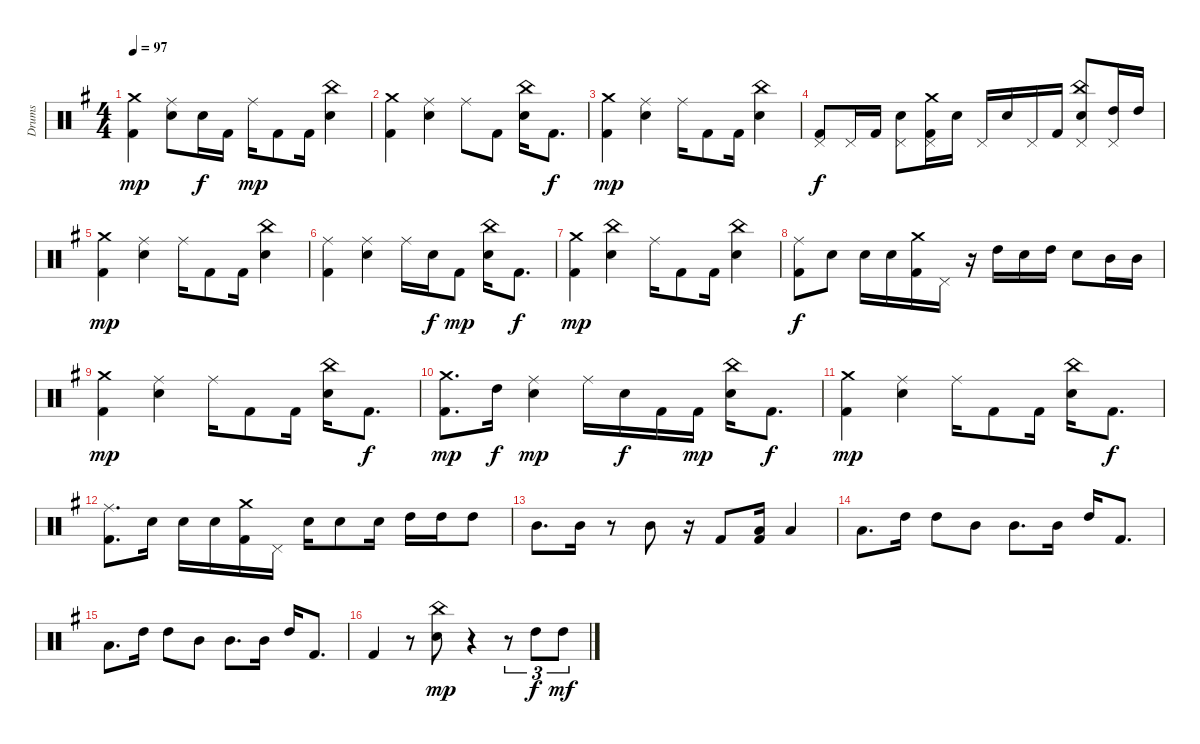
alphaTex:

\track ("Drums" "Drums") {instrument percussion}
\staff {score}
\articulation defaults
\ts (4 4)
\tempo 97
\clef neutral
\ks g
("Crash medium (hit)" "Kick (hit) 2").4{dy mp} ("Ride (middle)" "Electric Snare (hit)").8 "Electric Snare (hit)".16{dy f} "Kick (hit) 2".16 "Ride (middle)".16{dy mp} "Kick (hit) 2".8 "Kick (hit) 2".16 ("China (hit)" "Electric Snare (hit)").4 |
("Crash medium (hit)" "Kick (hit) 2").4 ("Ride (middle)" "Electric Snare (hit)").4 "Ride (middle)".8 "Kick (hit) 2".8 ("China (hit)" "Electric Snare (hit)").16 "Kick (hit) 2".8{d dy f} |
("Crash medium (hit)" "Kick (hit) 2").4{dy mp} ("Ride (middle)" "Electric Snare (hit)").4 "Ride (middle)".16 "Kick (hit) 2".8 "Kick (hit) 2".16 ("China (hit)" "Electric Snare (hit)").4 |
("Kick (hit) 2" "Pedal Hi-Hat (hit)").8{dy f} "Pedal Hi-Hat (hit)".16 "Kick (hit) 2".16 ("Electric Snare (hit)" "Pedal Hi-Hat (hit)").8 ("Kick (hit) 2" "Pedal Hi-Hat (hit)" "Crash medium (hit)").16 "Electric Snare (hit)".16 "Pedal Hi-Hat (hit)".16 "Electric Snare (hit)".16 "Pedal Hi-Hat (hit)".16 "Kick (hit) 2".16 ("Electric Snare (hit)" "Pedal Hi-Hat (hit)" "China (hit)").8 ("High Tom (hit)" "Pedal Hi-Hat (hit)").16 "High Tom (hit)".16 |
("Crash medium (hit)" "Kick (hit) 2").4{dy mp} ("Ride (middle)" "Electric Snare (hit)").4 "Ride (middle)".16 "Kick (hit) 2".8 "Kick (hit) 2".16 ("China (hit)" "Electric Snare (hit)").4 |
("Ride (middle)" "Kick (hit) 2").4 ("Ride (middle)" "Electric Snare (hit)").4 "Ride (middle)".16 "Electric Snare (hit)".16{dy f} "Kick (hit) 2".8{dy mp} ("China (hit)" "Electric Snare (hit)").16 "Kick (hit) 2".8{d dy f} |
("Crash medium (hit)" "Kick (hit) 2").4{dy mp} ("China (hit)" "Electric Snare (hit)").4 "Ride (middle)".16 "Kick (hit) 2".8 "Kick (hit) 2".16 ("China (hit)" "Electric Snare (hit)").4 |
("Kick (hit) 2" "Ride (middle)").8{dy f} "Electric Snare (hit)".8 "Electric Snare (hit)".16 "Electric Snare (hit)".16 ("Kick (hit) 2" "Crash medium (hit)").16 "Pedal Hi-Hat (hit)".16 r.16 "High Tom (hit)".16 "Electric Snare (hit)".16 "High Tom (hit)".16 "Electric Snare (hit)".8 "Mid Tom (hit)".16 "Mid Tom (hit)".16 |
("Crash medium (hit)" "Kick (hit) 2").4{dy mp} ("Ride (middle)" "Electric Snare (hit)").4 "Ride (middle)".16 "Kick (hit) 2".8 "Kick (hit) 2".16 ("China (hit)" "Electric Snare (hit)").16 "Kick (hit) 2".8{d dy f} |
("Crash medium (hit)" "Kick (hit) 2").8{d dy mp} "High Tom (hit)".16{dy f} ("Ride (middle)" "Electric Snare (hit)").4{dy mp} "Ride (middle)".16 "Electric Snare (hit)".16{dy f} "Kick (hit) 2".16 "Kick (hit) 2".16{dy mp} ("China (hit)" "Electric Snare (hit)").16 "Kick (hit) 2".8{d dy f} |
("Crash medium (hit)" "Kick (hit) 2").4{dy mp} ("Ride (middle)" "Electric Snare (hit)").4 "Ride (middle)".16 "Kick (hit) 2".8 "Kick (hit) 2".16 ("China (hit)" "Electric Snare (hit)").16 "Kick (hit) 2".8{d dy f} |
("Kick (hit) 2" "Ride (middle)").8{d} "Electric Snare (hit)".16 "Electric Snare (hit)".16 "Electric Snare (hit)".16 ("Kick (hit) 2" "Crash medium (hit)").16 "Pedal Hi-Hat (hit)".16 "Electric Snare (hit)".16 "Electric Snare (hit)".8 "Electric Snare (hit)".16 "High Tom (hit)".16 "High Tom (hit)".16 "High Tom (hit)".8 |
"Mid Tom (hit)".8{d} "Mid Tom (hit)".16 r.8 "Mid Tom (hit)".8 r.16 "Kick (hit) 2".8 ("Kick (hit) 2" "Low Tom (hit)").16 "Low Tom (hit)".4 |
"Low Tom (hit)".8{d} "High Tom (hit)".16 "High Tom (hit)".8 "Mid Tom (hit)".8 "Mid Tom (hit)".8{d} "Mid Tom (hit)".16 "High Tom (hit)".16 "Kick (hit) 2".8{d} |
"Low Tom (hit)".8{d} "High Tom (hit)".16 "High Tom (hit)".8 "Mid Tom (hit)".8 "Mid Tom (hit)".8{d} "Mid Tom (hit)".16 "High Tom (hit)".16 "Kick (hit) 2".8{d} |
"Kick (hit) 2".4 r.8 ("Electric Snare (hit)" "China (hit)").8{dy mp} r.4 r.8{tu (3 2)} "High Tom (hit)".8{tu (3 2) dy f} "High Tom (hit)".8{tu (3 2) dy mf}
